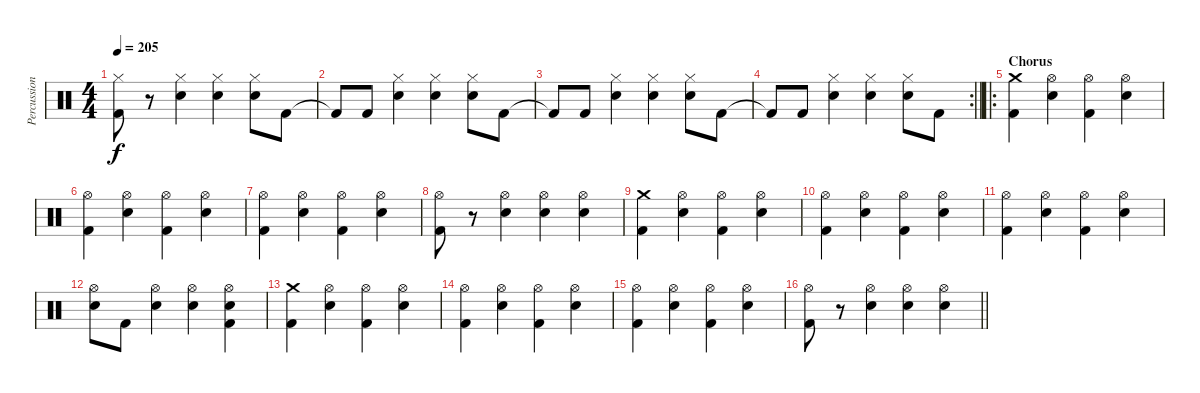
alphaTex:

\track ("Percussion" "Percussion") {instrument percussion}
\staff {score}
\articulation defaults
\ts (4 4)
\tempo 205
\clef neutral
\ks c
("Hi-Hat (closed)" "Kick (hit) 2").8{dy f} r.8 ("Hi-Hat (closed)" "Electric Snare (hit)").4 ("Hi-Hat (closed)" "Electric Snare (hit)").4 ("Hi-Hat (closed)" "Electric Snare (hit)").8 "Kick (hit) 2".8 |
"Kick (hit) 2"{t}.8 "Kick (hit) 2".8 ("Hi-Hat (closed)" "Electric Snare (hit)").4 ("Hi-Hat (closed)" "Electric Snare (hit)").4 ("Hi-Hat (closed)" "Electric Snare (hit)").8 "Kick (hit) 2".8 |
"Kick (hit) 2"{t}.8 "Kick (hit) 2".8 ("Hi-Hat (closed)" "Electric Snare (hit)").4 ("Hi-Hat (closed)" "Electric Snare (hit)").4 ("Hi-Hat (closed)" "Electric Snare (hit)").8 "Kick (hit) 2".8 |
\rc 2
\barLineRight lightlight "Kick (hit) 2"{t}.8 "Kick (hit) 2".8
("Hi-Hat (closed)" "Electric Snare (hit)").4 ("Hi-Hat (closed)" "Electric Snare (hit)").4 ("Hi-Hat (closed)" "Electric Snare (hit)").8 "Kick (hit) 2".8 |
\ro
\section ("" "Chorus")
("Crash medium (hit)" "Kick (hit) 2").4 ("Hi-Hat (open)" "Electric Snare (hit)").4 ("Hi-Hat (open)" "Kick (hit) 2").4 ("Hi-Hat (open)" "Electric Snare (hit)").4 |
("Hi-Hat (open)" "Kick (hit) 2").4 ("Hi-Hat (open)" "Electric Snare (hit)").4 ("Hi-Hat (open)" "Kick (hit) 2").4 ("Hi-Hat (open)" "Electric Snare (hit)").4 |
("Hi-Hat (open)" "Kick (hit) 2").4 ("Hi-Hat (open)" "Electric Snare (hit)").4 ("Hi-Hat (open)" "Kick (hit) 2").4 ("Hi-Hat (open)" "Electric Snare (hit)").4 |
("Hi-Hat (open)" "Kick (hit) 2").8 r.8 ("Hi-Hat (open)" "Electric Snare (hit)").4 ("Hi-Hat (open)" "Electric Snare (hit)").4 ("Hi-Hat (open)" "Electric Snare (hit)").4 |
("Crash medium (hit)" "Kick (hit) 2").4 ("Hi-Hat (open)" "Electric Snare (hit)").4 ("Hi-Hat (open)" "Kick (hit) 2").4 ("Hi-Hat (open)" "Electric Snare (hit)").4 |
("Hi-Hat (open)" "Kick (hit) 2").4 ("Hi-Hat (open)" "Electric Snare (hit)").4 ("Hi-Hat (open)" "Kick (hit) 2").4 ("Hi-Hat (open)" "Electric Snare (hit)").4 |
("Hi-Hat (open)" "Kick (hit) 2").4 ("Hi-Hat (open)" "Electric Snare (hit)").4 ("Hi-Hat (open)" "Kick (hit) 2").4 ("Hi-Hat (open)" "Electric Snare (hit)").4 |
("Hi-Hat (open)" "Electric Snare (hit)").8 "Kick (hit) 2".8 ("Hi-Hat (open)" "Electric Snare (hit)").4 ("Hi-Hat (open)" "Electric Snare (hit)").4 ("Hi-Hat (open)" "Electric Snare (hit)" "Kick (hit) 2").4 |
("Crash medium (hit)" "Kick (hit) 2").4 ("Hi-Hat (open)" "Electric Snare (hit)").4 ("Hi-Hat (open)" "Kick (hit) 2").4 ("Hi-Hat (open)" "Electric Snare (hit)").4 |
("Hi-Hat (open)" "Kick (hit) 2").4 ("Hi-Hat (open)" "Electric Snare (hit)").4 ("Hi-Hat (open)" "Kick (hit) 2").4 ("Hi-Hat (open)" "Electric Snare (hit)").4 |
("Hi-Hat (open)" "Kick (hit) 2").4 ("Hi-Hat (open)" "Electric Snare (hit)").4 ("Hi-Hat (open)" "Kick (hit) 2").4 ("Hi-Hat (open)" "Electric Snare (hit)").4 |
\barLineRight lightlight
("Hi-Hat (open)" "Kick (hit) 2").8 r.8 ("Hi-Hat (open)" "Electric Snare (hit)").4 ("Hi-Hat (open)" "Electric Snare (hit)").4 ("Hi-Hat (open)" "Electric Snare (hit)").4
